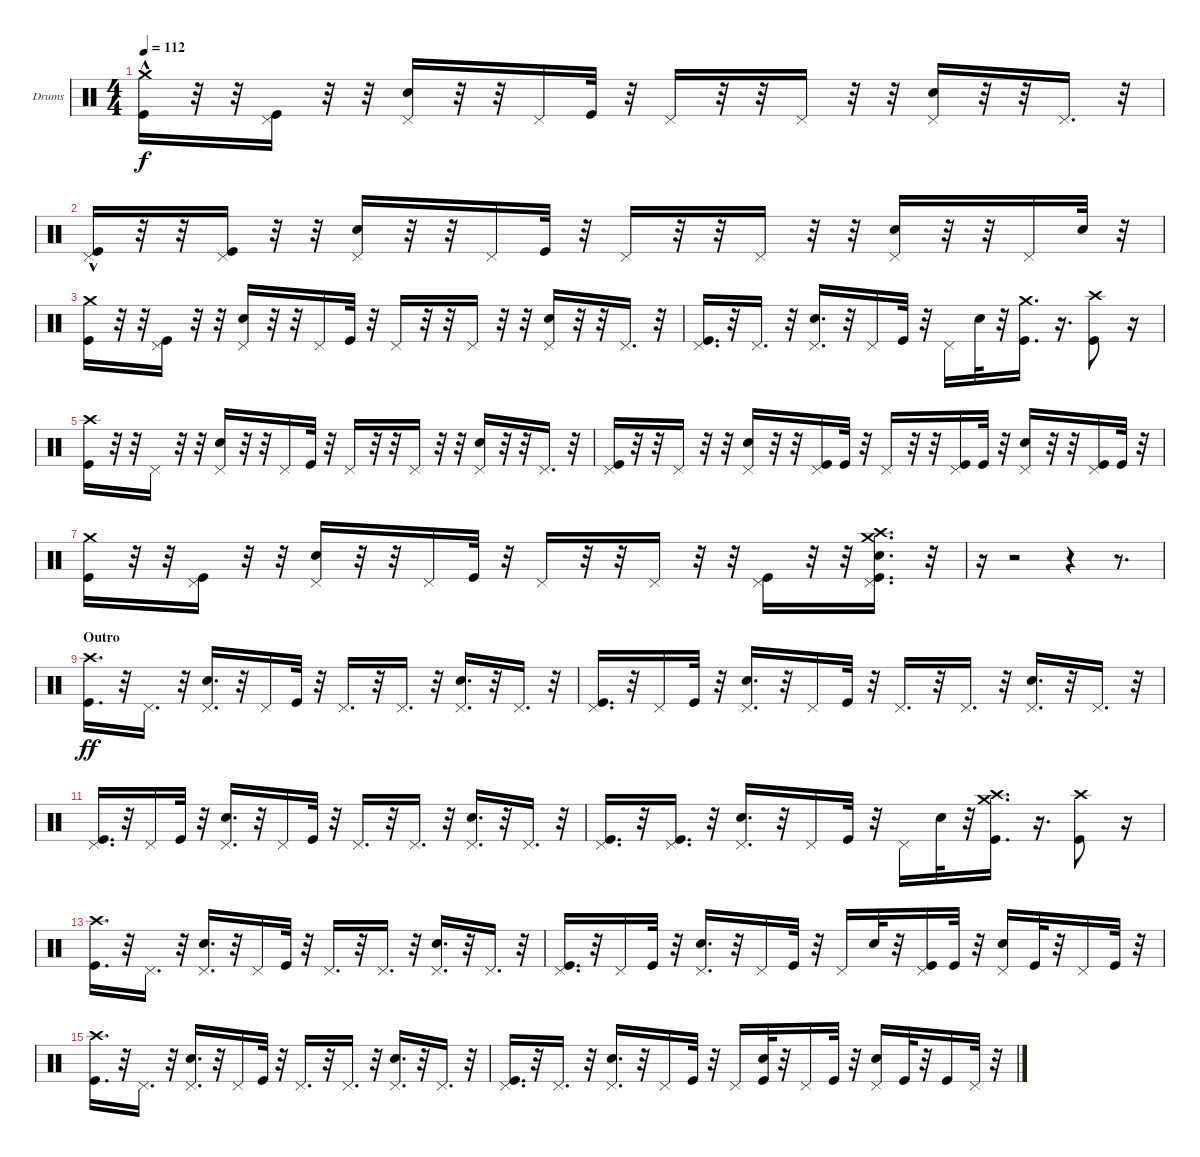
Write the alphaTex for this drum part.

\bracketExtendMode nobrackets
\firstSystemTrackNameOrientation horizontal
\otherSystemsTrackNameOrientation horizontal
\defaultBarNumberDisplay FirstOfSystem
\track ("Drumkit" "Drums") {instrument percussion}
\staff {score}
\articulation defaults
\ts (4 4)
\tempo 112
\clef neutral
\ks c
("Kick (hit)"{hac} "Crash medium (hit)").16{dy f} r.32 r.32 ("Pedal Hi-Hat (hit)" "Kick (hit)").16 r.32 r.32 ("Pedal Hi-Hat (hit)" "Snare (hit) 2").16 r.32 r.32 "Pedal Hi-Hat (hit)".16 "Kick (hit)".32 r.32 "Pedal Hi-Hat (hit)".16 r.32 r.32 "Pedal Hi-Hat (hit)".16 r.32 r.32 ("Pedal Hi-Hat (hit)" "Snare (hit) 2").16 r.32 r.32 "Pedal Hi-Hat (hit)".16{d} r.32 |
("Pedal Hi-Hat (hit)" "Kick (hit)"{hac}).16 r.32 r.32 ("Pedal Hi-Hat (hit)" "Kick (hit)").16 r.32 r.32 ("Pedal Hi-Hat (hit)" "Snare (hit) 2").16 r.32 r.32 "Pedal Hi-Hat (hit)".16 "Kick (hit)".32 r.32 "Pedal Hi-Hat (hit)".16 r.32 r.32 "Pedal Hi-Hat (hit)".16 r.32 r.32 ("Pedal Hi-Hat (hit)" "Snare (hit) 2").16 r.32 r.32 "Pedal Hi-Hat (hit)".16 "Snare (hit) 2".32 r.32 |
("Kick (hit)" "Crash medium (hit)").16 r.32 r.32 ("Pedal Hi-Hat (hit)" "Kick (hit)").16 r.32 r.32 ("Pedal Hi-Hat (hit)" "Snare (hit) 2").16 r.32 r.32 "Pedal Hi-Hat (hit)".16 "Kick (hit)".32 r.32 "Pedal Hi-Hat (hit)".16 r.32 r.32 "Pedal Hi-Hat (hit)".16 r.32 r.32 ("Pedal Hi-Hat (hit)" "Snare (hit) 2").16 r.32 r.32 "Pedal Hi-Hat (hit)".16{d} r.32 |
("Pedal Hi-Hat (hit)" "Kick (hit)").16{d} r.32 "Pedal Hi-Hat (hit)".16{d} r.32 ("Pedal Hi-Hat (hit)" "Snare (hit) 2").16{d} r.32 "Pedal Hi-Hat (hit)".16 "Kick (hit)".32 r.32 "Pedal Hi-Hat (hit)".16 "Snare (hit) 2".32 r.32 ("Kick (hit)" "Crash medium (hit)").16{d} r.16{d} ("Crash high (hit)" "Kick (hit)").8 r.16 |
("Crash high (hit)" "Kick (hit)").16 r.32 r.32 "Pedal Hi-Hat (hit)".16 r.32 r.32 ("Pedal Hi-Hat (hit)" "Snare (hit) 2").16 r.32 r.32 "Pedal Hi-Hat (hit)".16 "Kick (hit)".32 r.32 "Pedal Hi-Hat (hit)".16 r.32 r.32 "Pedal Hi-Hat (hit)".16 r.32 r.32 ("Pedal Hi-Hat (hit)" "Snare (hit) 2").16 r.32 r.32 "Pedal Hi-Hat (hit)".16{d} r.32 |
("Pedal Hi-Hat (hit)" "Kick (hit)").16 r.32 r.32 "Pedal Hi-Hat (hit)".16 r.32 r.32 ("Pedal Hi-Hat (hit)" "Snare (hit) 2").16 r.32 r.32 ("Pedal Hi-Hat (hit)" "Kick (hit)").16 "Kick (hit)".32 r.32 "Pedal Hi-Hat (hit)".16 r.32 r.32 ("Pedal Hi-Hat (hit)" "Kick (hit)").16 "Kick (hit)".32 r.32 ("Pedal Hi-Hat (hit)" "Snare (hit) 2").16 r.32 r.32 ("Pedal Hi-Hat (hit)" "Kick (hit)").16 "Kick (hit)".32 r.32 |
("Kick (hit)" "Crash medium (hit)").16 r.32 r.32 ("Pedal Hi-Hat (hit)" "Kick (hit)").16 r.32 r.32 ("Pedal Hi-Hat (hit)" "Snare (hit) 2").16 r.32 r.32 "Pedal Hi-Hat (hit)".16 "Kick (hit)".32 r.32 "Pedal Hi-Hat (hit)".16 r.32 r.32 "Pedal Hi-Hat (hit)".16 r.32 r.32 ("Pedal Hi-Hat (hit)" "Kick (hit)").16 r.32 r.32 ("Pedal Hi-Hat (hit)" "Kick (hit)" "Snare (hit) 2" "Crash high (hit)" "Crash medium (hit)").16{d} r.32 |
r.16 r.2 r.4 r.8{d} |
\section ("" "Outro")
("Kick (hit)" "Crash high (hit)").16{d dy ff} r.32 "Pedal Hi-Hat (hit)".16{d} r.32 ("Pedal Hi-Hat (hit)" "Snare (hit) 2").16{d} r.32 "Pedal Hi-Hat (hit)".16 "Kick (hit)".32 r.32 "Pedal Hi-Hat (hit)".16{d} r.32 "Pedal Hi-Hat (hit)".16{d} r.32 ("Pedal Hi-Hat (hit)" "Snare (hit) 2").16{d} r.32 "Pedal Hi-Hat (hit)".16{d} r.32 |
("Pedal Hi-Hat (hit)" "Kick (hit)").16{d} r.32 "Pedal Hi-Hat (hit)".16 "Kick (hit)".32 r.32 ("Pedal Hi-Hat (hit)" "Snare (hit) 2").16{d} r.32 "Pedal Hi-Hat (hit)".16 "Kick (hit)".32 r.32 "Pedal Hi-Hat (hit)".16{d} r.32 "Pedal Hi-Hat (hit)".16{d} r.32 ("Pedal Hi-Hat (hit)" "Snare (hit) 2").16{d} r.32 "Pedal Hi-Hat (hit)".16{d} r.32 |
("Pedal Hi-Hat (hit)" "Kick (hit)").16{d} r.32 "Pedal Hi-Hat (hit)".16 "Kick (hit)".32 r.32 ("Pedal Hi-Hat (hit)" "Snare (hit) 2").16{d} r.32 "Pedal Hi-Hat (hit)".16 "Kick (hit)".32 r.32 "Pedal Hi-Hat (hit)".16{d} r.32 "Pedal Hi-Hat (hit)".16{d} r.32 ("Pedal Hi-Hat (hit)" "Snare (hit) 2").16{d} r.32 "Pedal Hi-Hat (hit)".16{d} r.32 |
("Pedal Hi-Hat (hit)" "Kick (hit)").16{d} r.32 ("Pedal Hi-Hat (hit)" "Kick (hit)").16{d} r.32 ("Pedal Hi-Hat (hit)" "Snare (hit) 2").16{d} r.32 "Pedal Hi-Hat (hit)".16 "Kick (hit)".32 r.32 "Pedal Hi-Hat (hit)".16 "Snare (hit) 2".32 r.32 ("Crash high (hit)" "Kick (hit)" "Crash medium (hit)").16{d} r.16{d} ("Kick (hit)" "Crash high (hit)").8 r.16 |
("Crash high (hit)" "Kick (hit)").16{d} r.32 "Pedal Hi-Hat (hit)".16{d} r.32 ("Pedal Hi-Hat (hit)" "Snare (hit) 2").16{d} r.32 "Pedal Hi-Hat (hit)".16 "Kick (hit)".32 r.32 "Pedal Hi-Hat (hit)".16{d} r.32 "Pedal Hi-Hat (hit)".16{d} r.32 ("Pedal Hi-Hat (hit)" "Snare (hit) 2").16{d} r.32 "Pedal Hi-Hat (hit)".16{d} r.32 |
("Pedal Hi-Hat (hit)" "Kick (hit)").16{d} r.32 "Pedal Hi-Hat (hit)".16 "Kick (hit)".32 r.32 ("Pedal Hi-Hat (hit)" "Snare (hit) 2").16{d} r.32 "Pedal Hi-Hat (hit)".16 "Kick (hit)".32 r.32 "Pedal Hi-Hat (hit)".16 "Snare (hit) 2".32 r.32 ("Pedal Hi-Hat (hit)" "Kick (hit)").16 "Kick (hit)".32 r.32 ("Pedal Hi-Hat (hit)" "Snare (hit) 2").16 "Kick (hit)".32 r.32 "Pedal Hi-Hat (hit)".16 "Kick (hit)".32 r.32 |
("Crash high (hit)" "Kick (hit)").16{d} r.32 "Pedal Hi-Hat (hit)".16{d} r.32 ("Pedal Hi-Hat (hit)" "Snare (hit) 2").16{d} r.32 "Pedal Hi-Hat (hit)".16 "Kick (hit)".32 r.32 "Pedal Hi-Hat (hit)".16{d} r.32 "Pedal Hi-Hat (hit)".16{d} r.32 ("Pedal Hi-Hat (hit)" "Snare (hit) 2").16{d} r.32 "Pedal Hi-Hat (hit)".16{d} r.32 |
("Pedal Hi-Hat (hit)" "Kick (hit)").16{d} r.32 "Pedal Hi-Hat (hit)".16{d} r.32 ("Pedal Hi-Hat (hit)" "Snare (hit) 2").16{d} r.32 "Pedal Hi-Hat (hit)".16 "Kick (hit)".32 r.32 "Pedal Hi-Hat (hit)".16 ("Snare (hit) 2" "Kick (hit)").32 r.32 "Pedal Hi-Hat (hit)".16 "Kick (hit)".32 r.32 ("Pedal Hi-Hat (hit)" "Snare (hit) 2").16 "Kick (hit)".32 r.32 "Kick (hit)".16 "Pedal Hi-Hat (hit)".32 r.32
